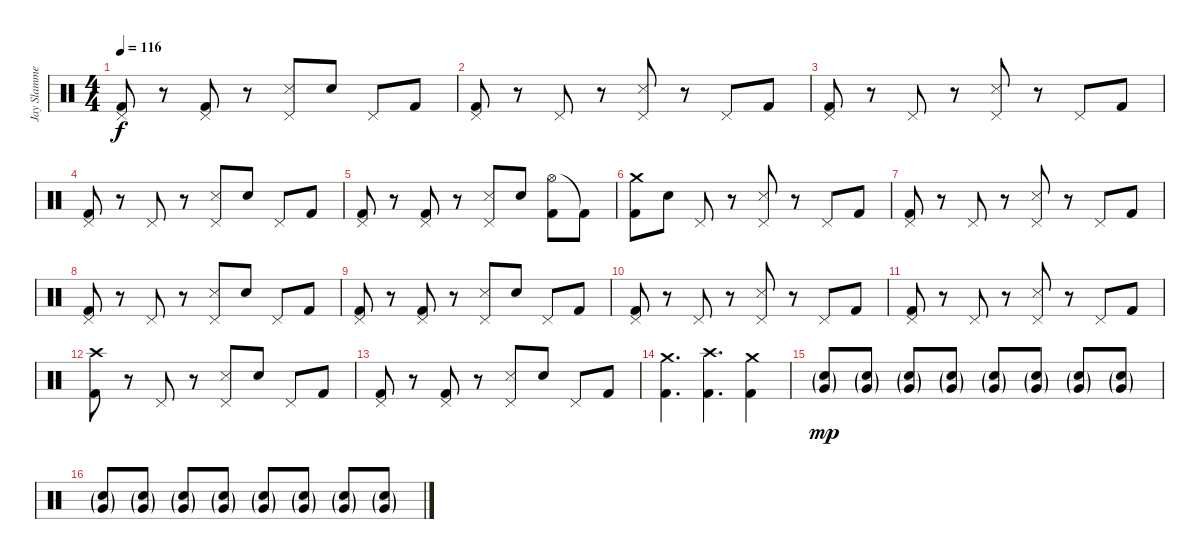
\track ("Jay Slammer " "Jay Slamme") {instrument percussion}
\staff {score}
\articulation defaults
\ts (4 4)
\tempo 116
\clef neutral
\ks c
("Pedal Hi-Hat (hit)" "Kick (hit) 2").8{dy f} r.8 ("Pedal Hi-Hat (hit)" "Kick (hit) 2").8 r.8 ("Pedal Hi-Hat (hit)" "Metronome (hit)").8 "Snare (hit)".8 "Pedal Hi-Hat (hit)".8 "Kick (hit) 2".8 |
("Pedal Hi-Hat (hit)" "Kick (hit) 2").8 r.8 "Pedal Hi-Hat (hit)".8 r.8 ("Pedal Hi-Hat (hit)" "Metronome (hit)").8 r.8 "Pedal Hi-Hat (hit)".8 "Kick (hit) 2".8 |
("Pedal Hi-Hat (hit)" "Kick (hit) 2").8 r.8 "Pedal Hi-Hat (hit)".8 r.8 ("Pedal Hi-Hat (hit)" "Metronome (hit)").8 r.8 "Pedal Hi-Hat (hit)".8 "Kick (hit) 2".8 |
("Pedal Hi-Hat (hit)" "Kick (hit) 2").8 r.8 "Pedal Hi-Hat (hit)".8 r.8 ("Pedal Hi-Hat (hit)" "Metronome (hit)").8 "Snare (hit)".8 "Pedal Hi-Hat (hit)".8 "Kick (hit) 2".8 |
("Pedal Hi-Hat (hit)" "Kick (hit) 2").8 r.8 ("Pedal Hi-Hat (hit)" "Kick (hit) 2").8 r.8 ("Pedal Hi-Hat (hit)" "Metronome (hit)").8 "Snare (hit)".8 ("Hi-Hat (open)" "Kick (hit) 2").8 "Kick (hit) 2"{t}.8 |
("Crash medium (hit)" "Kick (hit) 2").8 "Snare (hit)".8 "Pedal Hi-Hat (hit)".8 r.8 ("Pedal Hi-Hat (hit)" "Metronome (hit)").8 r.8 "Pedal Hi-Hat (hit)".8 "Kick (hit) 2".8 |
("Pedal Hi-Hat (hit)" "Kick (hit) 2").8 r.8 "Pedal Hi-Hat (hit)".8 r.8 ("Pedal Hi-Hat (hit)" "Metronome (hit)").8 r.8 "Pedal Hi-Hat (hit)".8 "Kick (hit) 2".8 |
("Pedal Hi-Hat (hit)" "Kick (hit) 2").8 r.8 "Pedal Hi-Hat (hit)".8 r.8 ("Pedal Hi-Hat (hit)" "Metronome (hit)").8 "Snare (hit)".8 "Pedal Hi-Hat (hit)".8 "Kick (hit) 2".8 |
("Pedal Hi-Hat (hit)" "Kick (hit) 2").8 r.8 ("Pedal Hi-Hat (hit)" "Kick (hit) 2").8 r.8 ("Pedal Hi-Hat (hit)" "Metronome (hit)").8 "Snare (hit)".8 "Pedal Hi-Hat (hit)".8 "Kick (hit) 2".8 |
("Pedal Hi-Hat (hit)" "Kick (hit) 2").8 r.8 "Pedal Hi-Hat (hit)".8 r.8 ("Pedal Hi-Hat (hit)" "Metronome (hit)").8 r.8 "Pedal Hi-Hat (hit)".8 "Kick (hit) 2".8 |
("Pedal Hi-Hat (hit)" "Kick (hit) 2").8 r.8 "Pedal Hi-Hat (hit)".8 r.8 ("Pedal Hi-Hat (hit)" "Metronome (hit)").8 r.8 "Pedal Hi-Hat (hit)".8 "Kick (hit) 2".8 |
("Crash high (hit)" "Kick (hit) 2").8 r.8 "Pedal Hi-Hat (hit)".8 r.8 ("Pedal Hi-Hat (hit)" "Metronome (hit)").8 "Snare (hit)".8 "Pedal Hi-Hat (hit)".8 "Kick (hit) 2".8 |
("Pedal Hi-Hat (hit)" "Kick (hit) 2").8 r.8 ("Pedal Hi-Hat (hit)" "Kick (hit) 2").8 r.8 ("Pedal Hi-Hat (hit)" "Metronome (hit)").8 "Snare (hit)".8 "Pedal Hi-Hat (hit)".8 "Kick (hit) 2".8 |
("Crash medium (hit)" "Kick (hit) 2").4{d} ("Crash high (hit)" "Kick (hit) 2").4{d} ("Crash medium (hit)" "Kick (hit) 2").4 |
("Electric Snare (hit)"{g} "Very Low Tom (hit)"{g}).8{dy mp} ("Electric Snare (hit)"{g} "Very Low Tom (hit)"{g}).8 ("Electric Snare (hit)"{g} "Very Low Tom (hit)"{g}).8 ("Electric Snare (hit)"{g} "Very Low Tom (hit)"{g}).8 ("Electric Snare (hit)"{g} "Very Low Tom (hit)"{g}).8 ("Electric Snare (hit)"{g} "Very Low Tom (hit)"{g}).8 ("Electric Snare (hit)"{g} "Very Low Tom (hit)"{g}).8 ("Electric Snare (hit)"{g} "Very Low Tom (hit)"{g}).8 |
("Electric Snare (hit)"{g} "Very Low Tom (hit)"{g}).8 ("Electric Snare (hit)"{g} "Very Low Tom (hit)"{g}).8 ("Electric Snare (hit)"{g} "Very Low Tom (hit)"{g}).8 ("Electric Snare (hit)"{g} "Very Low Tom (hit)"{g}).8 ("Electric Snare (hit)"{g} "Very Low Tom (hit)"{g}).8 ("Electric Snare (hit)"{g} "Very Low Tom (hit)"{g}).8 ("Electric Snare (hit)"{g} "Very Low Tom (hit)"{g}).8 ("Electric Snare (hit)"{g} "Very Low Tom (hit)"{g}).8
